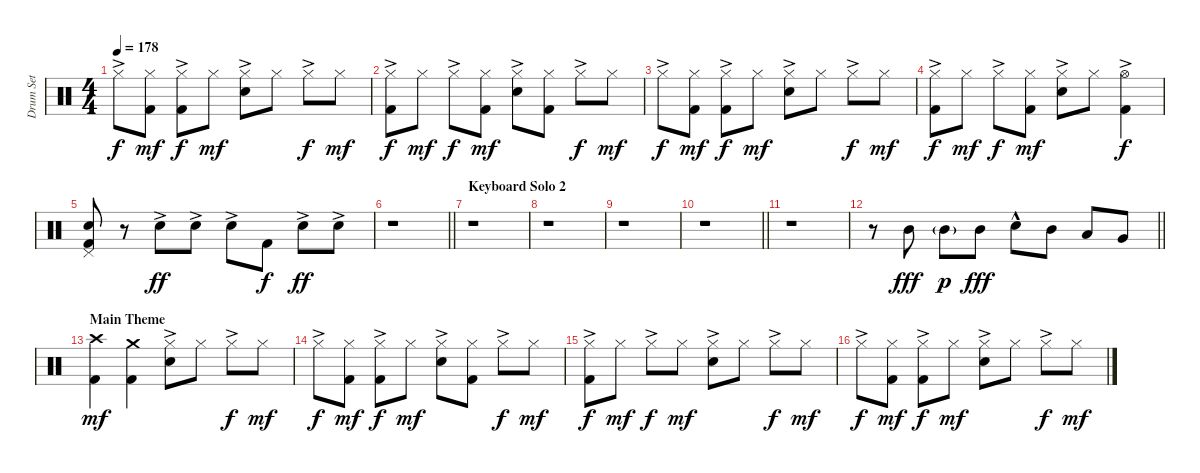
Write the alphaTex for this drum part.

\track ("Drum Set" "Drum Set") {instrument percussion}
\staff {score}
\articulation defaults
\ts (4 4)
\tempo 178
\clef neutral
\ks c "Hi-Hat (closed)"{ac}.8{dy f}
("Hi-Hat (closed)" "Kick (hit) 2").8{dy mf} ("Hi-Hat (closed)"{ac} "Kick (hit) 2").8{dy f} "Hi-Hat (closed)".8{dy mf} ("Hi-Hat (closed)"{ac} "Electric Snare (hit)").8 "Hi-Hat (closed)".8 "Hi-Hat (closed)"{ac}.8{dy f} "Hi-Hat (closed)".8{dy mf} |
("Hi-Hat (closed)"{ac} "Kick (hit) 2").8{dy f} "Hi-Hat (closed)".8{dy mf} "Hi-Hat (closed)"{ac}.8{dy f} ("Hi-Hat (closed)" "Kick (hit) 2").8{dy mf} ("Hi-Hat (closed)"{ac} "Electric Snare (hit)").8 ("Hi-Hat (closed)" "Kick (hit) 2").8 "Hi-Hat (closed)"{ac}.8{dy f} "Hi-Hat (closed)".8{dy mf} |
"Hi-Hat (closed)"{ac}.8{dy f} ("Hi-Hat (closed)" "Kick (hit) 2").8{dy mf} ("Hi-Hat (closed)"{ac} "Kick (hit) 2").8{dy f} "Hi-Hat (closed)".8{dy mf} ("Hi-Hat (closed)"{ac} "Electric Snare (hit)").8 "Hi-Hat (closed)".8 "Hi-Hat (closed)"{ac}.8{dy f} "Hi-Hat (closed)".8{dy mf} |
("Hi-Hat (closed)"{ac} "Kick (hit) 2").8{dy f} "Hi-Hat (closed)".8{dy mf} "Hi-Hat (closed)"{ac}.8{dy f} ("Hi-Hat (closed)" "Kick (hit) 2").8{dy mf} ("Hi-Hat (closed)"{ac} "Electric Snare (hit)").8 "Hi-Hat (closed)".8 ("Hi-Hat (open)"{ac} "Kick (hit) 2").4{dy f} |
("Pedal Hi-Hat (hit)" "Electric Snare (hit)" "Kick (hit) 2").8 r.8 "Electric Snare (hit)"{ac}.8{dy ff} "Electric Snare (hit)"{ac}.8 "Electric Snare (hit)"{ac}.8{beam Down} "Kick (hit) 2".8{dy f beam Down} "Electric Snare (hit)"{ac}.8{dy ff} "Electric Snare (hit)"{ac}.8 |
\barLineRight lightlight
r.1 |
\section ("" "Keyboard Solo 2")
r.1 |
r.1 |
r.1 |
\barLineRight lightlight
r.1 |
r.1 |
\barLineRight lightlight
r.8 "Mid Tom (hit)".8{dy fff} "Mid Tom (hit)"{g}.8{dy p} "Mid Tom (hit)".8{dy fff} "Electric Snare (hit)"{hac}.8 "Mid Tom (hit)".8 "Low Tom (hit)".8 "Very Low Tom (hit)".8 |
\section ("" "Main Theme")
("Crash high (hit)" "Kick (hit) 2").4{dy mf} ("Crash medium (hit)" "Kick (hit) 2").4 ("Hi-Hat (closed)"{ac} "Electric Snare (hit)").8 "Hi-Hat (closed)".8 "Hi-Hat (closed)"{ac}.8{dy f} "Hi-Hat (closed)".8{dy mf} |
"Hi-Hat (closed)"{ac}.8{dy f} ("Hi-Hat (closed)" "Kick (hit) 2").8{dy mf} ("Hi-Hat (closed)"{ac} "Kick (hit) 2").8{dy f} "Hi-Hat (closed)".8{dy mf} ("Hi-Hat (closed)"{ac} "Electric Snare (hit)").8 ("Hi-Hat (closed)" "Kick (hit) 2").8 "Hi-Hat (closed)"{ac}.8{dy f} "Hi-Hat (closed)".8{dy mf} |
("Hi-Hat (closed)"{ac} "Kick (hit) 2").8{dy f} "Hi-Hat (closed)".8{dy mf} "Hi-Hat (closed)"{ac}.8{dy f} "Hi-Hat (closed)".8{dy mf} ("Hi-Hat (closed)"{ac} "Electric Snare (hit)").8 "Hi-Hat (closed)".8 "Hi-Hat (closed)"{ac}.8{dy f} "Hi-Hat (closed)".8{dy mf} |
"Hi-Hat (closed)"{ac}.8{dy f} ("Hi-Hat (closed)" "Kick (hit) 2").8{dy mf} ("Hi-Hat (closed)"{ac} "Kick (hit) 2").8{dy f} "Hi-Hat (closed)".8{dy mf} ("Hi-Hat (closed)"{ac} "Electric Snare (hit)").8 "Hi-Hat (closed)".8 "Hi-Hat (closed)"{ac}.8{dy f} "Hi-Hat (closed)".8{dy mf}
